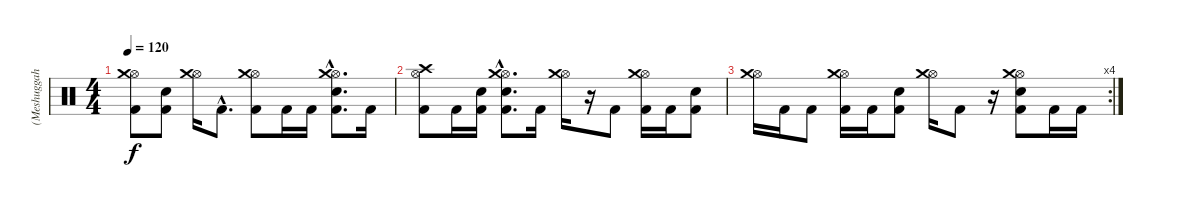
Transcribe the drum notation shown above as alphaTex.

\track ("(Meshuggah) Drum programming" "(Meshuggah") {instrument percussion}
\staff {score}
\articulation defaults
\ts (4 4)
\tempo 120
\clef neutral
\ks c
("Hi-Hat (open)" "Crash medium (hit)" "Kick (hit) 2").8{dy f} ("Electric Snare (hit)" "Kick (hit) 2").8 ("Hi-Hat (open)" "Crash medium (hit)").16 "Kick (hit) 2"{hac}.8{d} ("Hi-Hat (open)" "Crash medium (hit)" "Kick (hit) 2").8 "Kick (hit) 2".16 "Kick (hit) 2".16 ("Hi-Hat (open)"{hac} "Crash medium (hit)"{hac} "Electric Snare (hit)"{hac} "Kick (hit) 2"{hac}).8{d} "Kick (hit) 2".16 |
("Hi-Hat (open)" "Crash high (hit)" "Kick (hit) 2").8 "Kick (hit) 2".16 ("Electric Snare (hit)" "Kick (hit) 2").16 ("Hi-Hat (open)"{hac} "Crash medium (hit)"{hac} "Electric Snare (hit)"{hac} "Kick (hit) 2"{hac}).8{d} "Kick (hit) 2".16 ("Hi-Hat (open)" "Crash medium (hit)").16 r.16 "Kick (hit) 2".8 ("Hi-Hat (open)" "Crash medium (hit)" "Kick (hit) 2").16 "Kick (hit) 2".16 ("Electric Snare (hit)" "Kick (hit) 2").8 |
\rc 4
("Hi-Hat (open)" "Crash medium (hit)").16 "Kick (hit) 2".16 "Kick (hit) 2".8 ("Hi-Hat (open)" "Crash medium (hit)" "Kick (hit) 2").16 "Kick (hit) 2".16 ("Electric Snare (hit)" "Kick (hit) 2").8 ("Hi-Hat (open)" "Crash medium (hit)").16 "Kick (hit) 2".8 r.16 ("Hi-Hat (open)" "Crash medium (hit)" "Electric Snare (hit)" "Kick (hit) 2").8 "Kick (hit) 2".16 "Kick (hit) 2".16
